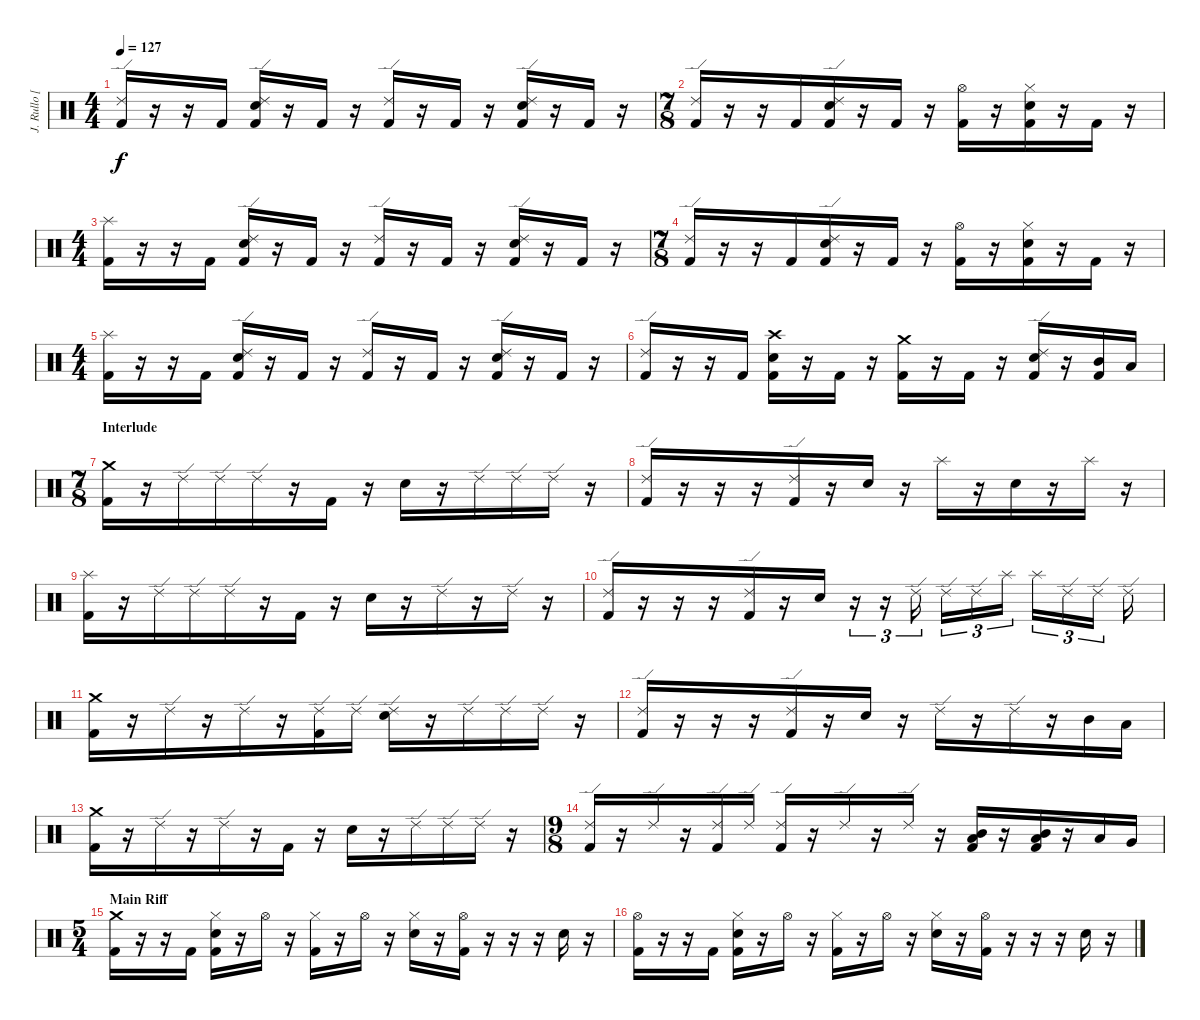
\track ("J. Rullo [Drums]" "J. Rullo [") {instrument percussion}
\staff {score}
\articulation defaults
\ts (4 4)
\tempo 127
\clef neutral
\ks c
("Ride (edge) 2" "Kick (hit) 2").16{dy f} r.16 r.16 "Kick (hit) 2".16 ("Ride (edge) 2" "Electric Snare (hit)" "Kick (hit) 2").16 r.16 "Kick (hit) 2".16 r.16 ("Ride (edge) 2" "Kick (hit) 2").16 r.16 "Kick (hit) 2".16 r.16 ("Ride (edge) 2" "Electric Snare (hit)" "Kick (hit) 2").16 r.16 "Kick (hit) 2".16 r.16 |
\ts (7 8)
("Ride (edge) 2" "Kick (hit) 2").16 r.16 r.16 "Kick (hit) 2".16 ("Ride (edge) 2" "Electric Snare (hit)" "Kick (hit) 2").16 r.16 "Kick (hit) 2".16 r.16 ("Hi-Hat (open)" "Kick (hit) 2").16 r.16 ("Hi-Hat (closed)" "Electric Snare (hit)" "Kick (hit) 2").16 r.16 "Kick (hit) 2".16 r.16 |
\ts (4 4)
("Splash (hit)" "Kick (hit) 2").16 r.16 r.16 "Kick (hit) 2".16 ("Ride (edge) 2" "Electric Snare (hit)" "Kick (hit) 2").16 r.16 "Kick (hit) 2".16 r.16 ("Ride (edge) 2" "Kick (hit) 2").16 r.16 "Kick (hit) 2".16 r.16 ("Ride (edge) 2" "Electric Snare (hit)" "Kick (hit) 2").16 r.16 "Kick (hit) 2".16 r.16 |
\ts (7 8)
("Ride (edge) 2" "Kick (hit) 2").16 r.16 r.16 "Kick (hit) 2".16 ("Ride (edge) 2" "Electric Snare (hit)" "Kick (hit) 2").16 r.16 "Kick (hit) 2".16 r.16 ("Hi-Hat (open)" "Kick (hit) 2").16 r.16 ("Hi-Hat (closed)" "Electric Snare (hit)" "Kick (hit) 2").16 r.16 "Kick (hit) 2".16 r.16 |
\ts (4 4)
("Splash (hit)" "Kick (hit) 2").16 r.16 r.16 "Kick (hit) 2".16 ("Ride (edge) 2" "Electric Snare (hit)" "Kick (hit) 2").16 r.16 "Kick (hit) 2".16 r.16 ("Ride (edge) 2" "Kick (hit) 2").16 r.16 "Kick (hit) 2".16 r.16 ("Ride (edge) 2" "Electric Snare (hit)" "Kick (hit) 2").16 r.16 "Kick (hit) 2".16 r.16 |
("Ride (edge) 2" "Kick (hit) 2").16 r.16 r.16 "Kick (hit) 2".16 ("Crash high (hit)" "Electric Snare (hit)" "Kick (hit) 2").16 r.16 "Kick (hit) 2".16 r.16 ("Crash medium (hit)" "Kick (hit) 2").16 r.16 "Kick (hit) 2".16 r.16 ("Ride (edge) 2" "Electric Snare (hit)" "Kick (hit) 2").16 r.16 ("Mid Tom (hit)" "Kick (hit) 2").16 "Low Tom (hit)".16 |
\ts (7 8)
\section ("" "Interlude")
("Crash medium (hit)" "Kick (hit) 2").16 r.16 "Ride (edge) 2".16 "Ride (edge) 2".16 "Ride (edge) 2".16 r.16 "Kick (hit) 2".16 r.16 "Electric Snare (hit)".16 r.16 "Ride (edge) 2".16 "Ride (edge) 2".16 "Ride (edge) 2".16 r.16 |
("Ride (edge) 2" "Kick (hit) 2").16 r.16 r.16 r.16 ("Ride (edge) 2" "Kick (hit) 2").16 r.16 "Electric Snare (hit)".16 r.16 "Splash (hit)".16 r.16 "Electric Snare (hit)".16 r.16 "Splash (hit)".16 r.16 |
("Splash (hit)" "Kick (hit) 2").16 r.16 "Ride (edge) 2".16 "Ride (edge) 2".16 "Ride (edge) 2".16 r.16 "Kick (hit) 2".16 r.16 "Electric Snare (hit)".16 r.16 "Ride (edge) 2".16 r.16 "Ride (edge) 2".16 r.16 |
("Ride (edge) 2" "Kick (hit) 2").16 r.16 r.16 r.16 ("Ride (edge) 2" "Kick (hit) 2").16 r.16 "Electric Snare (hit)".16 r.16{tu (3 2)} r.16{tu (3 2)} "Ride (edge) 2".16{tu (3 2)} "Ride (edge) 2".16{tu (3 2)} "Ride (edge) 2".16{tu (3 2)} "Splash (hit)".16{tu (3 2)} "Splash (hit)".16{tu (3 2)} "Ride (edge) 2".16{tu (3 2)} "Ride (edge) 2".16{tu (3 2)} "Ride (edge) 2".16 |
("Crash medium (hit)" "Kick (hit) 2").16 r.16 "Ride (edge) 2".16 r.16 "Ride (edge) 2".16 r.16 ("Ride (edge) 2" "Kick (hit) 2").16 "Ride (edge) 2".16 ("Ride (edge) 2" "Electric Snare (hit)").16 r.16 "Ride (edge) 2".16 "Ride (edge) 2".16 "Ride (edge) 2".16 r.16 |
("Ride (edge) 2" "Kick (hit) 2").16 r.16 r.16 r.16 ("Ride (edge) 2" "Kick (hit) 2").16 r.16 "Electric Snare (hit)".16 r.16 "Ride (edge) 2".16 r.16 "Ride (edge) 2".16 r.16 "Mid Tom (hit)".16 "Low Tom (hit)".16 |
("Crash medium (hit)" "Kick (hit) 2").16 r.16 "Ride (edge) 2".16 r.16 "Ride (edge) 2".16 r.16 "Kick (hit) 2".16 r.16 "Electric Snare (hit)".16 r.16 "Ride (edge) 2".16 "Ride (edge) 2".16 "Ride (edge) 2".16 r.16 |
\ts (9 8)
("Ride (edge) 2" "Kick (hit) 2").16 r.16 "Ride (edge) 2".16 r.16 ("Ride (edge) 2" "Kick (hit) 2").16 "Ride (edge) 2".16 ("Ride (edge) 2" "Kick (hit) 2").16 r.16 "Ride (edge) 2".16 r.16 "Ride (edge) 2".16 r.16 ("Mid Tom (hit)" "Low Tom (hit)" "Kick (hit) 2").16 r.16 ("Mid Tom (hit)" "Low Tom (hit)" "Kick (hit) 2").16 r.16 "Low Tom (hit)".16 "Very Low Tom (hit)".16 |
\ts (5 4)
\section ("" "Main Riff")
("Crash medium (hit)" "Kick (hit) 2").16 r.16 r.16 "Kick (hit) 2".16 ("Hi-Hat (closed)" "Electric Snare (hit)" "Kick (hit) 2").16 r.16 "Hi-Hat (open)".16 r.16 ("Hi-Hat (closed)" "Kick (hit) 2").16 r.16 "Hi-Hat (open)".16 r.16 ("Hi-Hat (closed)" "Electric Snare (hit)").16 r.16 ("Hi-Hat (open)" "Kick (hit) 2").16 r.16 r.16 r.16 "Electric Snare (hit)".16 r.16 |
("Hi-Hat (open)" "Kick (hit) 2").16 r.16 r.16 "Kick (hit) 2".16 ("Hi-Hat (closed)" "Electric Snare (hit)" "Kick (hit) 2").16 r.16 "Hi-Hat (open)".16 r.16 ("Hi-Hat (closed)" "Kick (hit) 2").16 r.16 "Hi-Hat (open)".16 r.16 ("Hi-Hat (closed)" "Electric Snare (hit)").16 r.16 ("Hi-Hat (open)" "Kick (hit) 2").16 r.16 r.16 r.16 "Electric Snare (hit)".16 r.16
